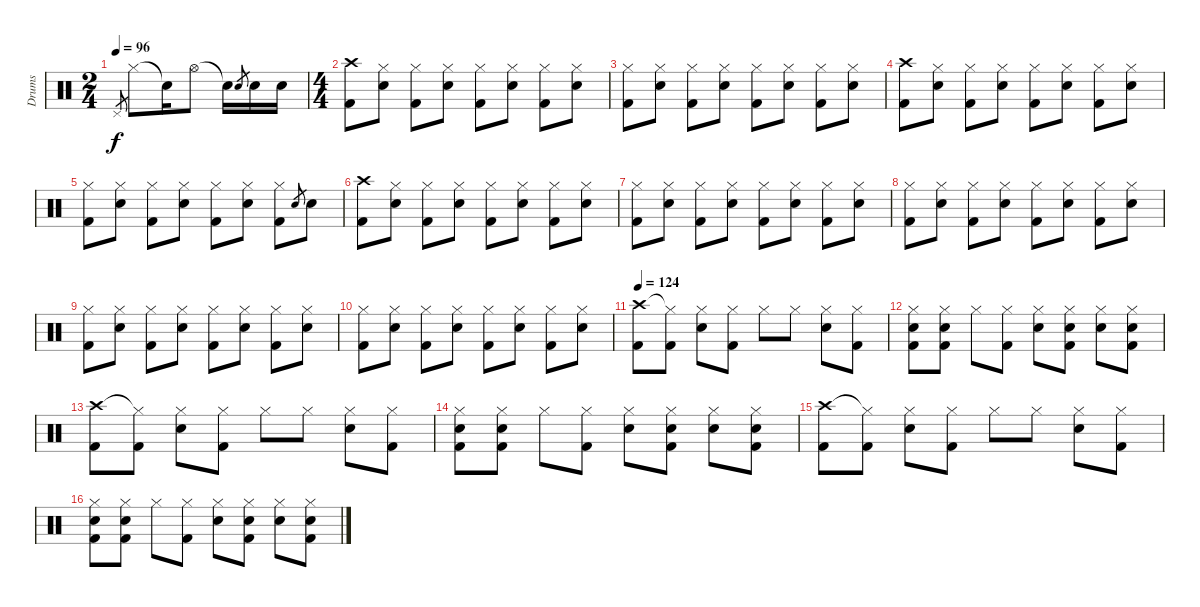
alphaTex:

\track ("Drums" "Drums") {instrument percussion}
\staff {score}
\articulation defaults
\ts (2 4)
\tempo 96
\clef neutral
\ks c "Pedal Hi-Hat (hit)".8{gr dy f} "Hi-Hat (closed)".8 "Snare (hit)"{t}.16 "Hi-Hat (open)".8 "Snare (hit)"{t}.16 "Electric Snare (hit)".8{gr} "Electric Snare (hit)".16 "Electric Snare (hit)".16
|
\ts (4 4)
("Crash high (hit)" "Kick (hit) 2").8 ("Hi-Hat (closed)" "Electric Snare (hit)").8 ("Hi-Hat (closed)" "Kick (hit) 2").8 ("Hi-Hat (closed)" "Electric Snare (hit)").8 ("Hi-Hat (closed)" "Kick (hit) 2").8 ("Hi-Hat (closed)" "Electric Snare (hit)").8 ("Hi-Hat (closed)" "Kick (hit) 2").8 ("Hi-Hat (closed)" "Electric Snare (hit)").8 |
("Hi-Hat (closed)" "Kick (hit) 2").8 ("Hi-Hat (closed)" "Electric Snare (hit)").8 ("Hi-Hat (closed)" "Kick (hit) 2").8 ("Hi-Hat (closed)" "Electric Snare (hit)").8 ("Hi-Hat (closed)" "Kick (hit) 2").8 ("Hi-Hat (closed)" "Electric Snare (hit)").8 ("Hi-Hat (closed)" "Kick (hit) 2").8 ("Hi-Hat (closed)" "Electric Snare (hit)").8 |
("Crash high (hit)" "Kick (hit) 2").8 ("Hi-Hat (closed)" "Electric Snare (hit)").8 ("Hi-Hat (closed)" "Kick (hit) 2").8 ("Hi-Hat (closed)" "Electric Snare (hit)").8 ("Hi-Hat (closed)" "Kick (hit) 2").8 ("Hi-Hat (closed)" "Electric Snare (hit)").8 ("Hi-Hat (closed)" "Kick (hit) 2").8 ("Hi-Hat (closed)" "Electric Snare (hit)").8 |
("Hi-Hat (closed)" "Kick (hit) 2").8 ("Hi-Hat (closed)" "Electric Snare (hit)").8 ("Hi-Hat (closed)" "Kick (hit) 2").8 ("Hi-Hat (closed)" "Electric Snare (hit)").8 ("Hi-Hat (closed)" "Kick (hit) 2").8 ("Hi-Hat (closed)" "Electric Snare (hit)").8 ("Hi-Hat (closed)" "Kick (hit) 2").8 "Electric Snare (hit)".8{gr} "Electric Snare (hit)".8 |
("Crash high (hit)" "Kick (hit) 2").8 ("Hi-Hat (closed)" "Electric Snare (hit)").8 ("Hi-Hat (closed)" "Kick (hit) 2").8 ("Hi-Hat (closed)" "Electric Snare (hit)").8 ("Hi-Hat (closed)" "Kick (hit) 2").8 ("Hi-Hat (closed)" "Electric Snare (hit)").8 ("Hi-Hat (closed)" "Kick (hit) 2").8 ("Hi-Hat (closed)" "Electric Snare (hit)").8 |
("Hi-Hat (closed)" "Kick (hit) 2").8 ("Hi-Hat (closed)" "Electric Snare (hit)").8 ("Hi-Hat (closed)" "Kick (hit) 2").8 ("Hi-Hat (closed)" "Electric Snare (hit)").8 ("Hi-Hat (closed)" "Kick (hit) 2").8 ("Hi-Hat (closed)" "Electric Snare (hit)").8 ("Hi-Hat (closed)" "Kick (hit) 2").8 ("Hi-Hat (closed)" "Electric Snare (hit)").8 |
("Hi-Hat (closed)" "Kick (hit) 2").8 ("Hi-Hat (closed)" "Electric Snare (hit)").8 ("Hi-Hat (closed)" "Kick (hit) 2").8 ("Hi-Hat (closed)" "Electric Snare (hit)").8 ("Hi-Hat (closed)" "Kick (hit) 2").8 ("Hi-Hat (closed)" "Electric Snare (hit)").8 ("Hi-Hat (closed)" "Kick (hit) 2").8 ("Hi-Hat (closed)" "Electric Snare (hit)").8 |
("Hi-Hat (closed)" "Kick (hit) 2").8 ("Hi-Hat (closed)" "Electric Snare (hit)").8 ("Hi-Hat (closed)" "Kick (hit) 2").8 ("Hi-Hat (closed)" "Electric Snare (hit)").8 ("Hi-Hat (closed)" "Kick (hit) 2").8 ("Hi-Hat (closed)" "Electric Snare (hit)").8 ("Hi-Hat (closed)" "Kick (hit) 2").8 ("Hi-Hat (closed)" "Electric Snare (hit)").8 |
("Hi-Hat (closed)" "Kick (hit) 2").8 ("Hi-Hat (closed)" "Electric Snare (hit)").8 ("Hi-Hat (closed)" "Kick (hit) 2").8 ("Hi-Hat (closed)" "Electric Snare (hit)").8 ("Hi-Hat (closed)" "Kick (hit) 2").8 ("Hi-Hat (closed)" "Electric Snare (hit)").8 ("Hi-Hat (closed)" "Kick (hit) 2").8 ("Hi-Hat (closed)" "Electric Snare (hit)").8 |
\tempo 124
("Crash high (hit)" "Kick (hit) 2").8 ("Hi-Hat (closed)"{t} "Kick (hit) 2").8 ("Hi-Hat (closed)" "Electric Snare (hit)").8 ("Hi-Hat (closed)" "Kick (hit) 2").8 "Hi-Hat (closed)".8 "Hi-Hat (closed)".8 ("Hi-Hat (closed)" "Electric Snare (hit)").8 ("Hi-Hat (closed)" "Kick (hit) 2").8 |
("Hi-Hat (closed)" "Electric Snare (hit)" "Kick (hit) 2").8 ("Hi-Hat (closed)" "Electric Snare (hit)" "Kick (hit) 2").8 "Hi-Hat (closed)".8 ("Hi-Hat (closed)" "Kick (hit) 2").8 ("Hi-Hat (closed)" "Electric Snare (hit)").8 ("Hi-Hat (closed)" "Electric Snare (hit)" "Kick (hit) 2").8 ("Hi-Hat (closed)" "Electric Snare (hit)").8 ("Hi-Hat (closed)" "Electric Snare (hit)" "Kick (hit) 2").8 |
("Crash high (hit)" "Kick (hit) 2").8 ("Hi-Hat (closed)"{t} "Kick (hit) 2").8 ("Hi-Hat (closed)" "Electric Snare (hit)").8 ("Hi-Hat (closed)" "Kick (hit) 2").8 "Hi-Hat (closed)".8 "Hi-Hat (closed)".8 ("Hi-Hat (closed)" "Electric Snare (hit)").8 ("Hi-Hat (closed)" "Kick (hit) 2").8 |
("Hi-Hat (closed)" "Electric Snare (hit)" "Kick (hit) 2").8 ("Hi-Hat (closed)" "Electric Snare (hit)" "Kick (hit) 2").8 "Hi-Hat (closed)".8 ("Hi-Hat (closed)" "Kick (hit) 2").8 ("Hi-Hat (closed)" "Electric Snare (hit)").8 ("Hi-Hat (closed)" "Electric Snare (hit)" "Kick (hit) 2").8 ("Hi-Hat (closed)" "Electric Snare (hit)").8 ("Hi-Hat (closed)" "Electric Snare (hit)" "Kick (hit) 2").8 |
("Crash high (hit)" "Kick (hit) 2").8 ("Hi-Hat (closed)"{t} "Kick (hit) 2").8 ("Hi-Hat (closed)" "Electric Snare (hit)").8 ("Hi-Hat (closed)" "Kick (hit) 2").8 "Hi-Hat (closed)".8 "Hi-Hat (closed)".8 ("Hi-Hat (closed)" "Electric Snare (hit)").8 ("Hi-Hat (closed)" "Kick (hit) 2").8 |
("Hi-Hat (closed)" "Electric Snare (hit)" "Kick (hit) 2").8 ("Hi-Hat (closed)" "Electric Snare (hit)" "Kick (hit) 2").8 "Hi-Hat (closed)".8 ("Hi-Hat (closed)" "Kick (hit) 2").8 ("Hi-Hat (closed)" "Electric Snare (hit)").8 ("Hi-Hat (closed)" "Electric Snare (hit)" "Kick (hit) 2").8 ("Hi-Hat (closed)" "Electric Snare (hit)").8 ("Hi-Hat (closed)" "Electric Snare (hit)" "Kick (hit) 2").8
